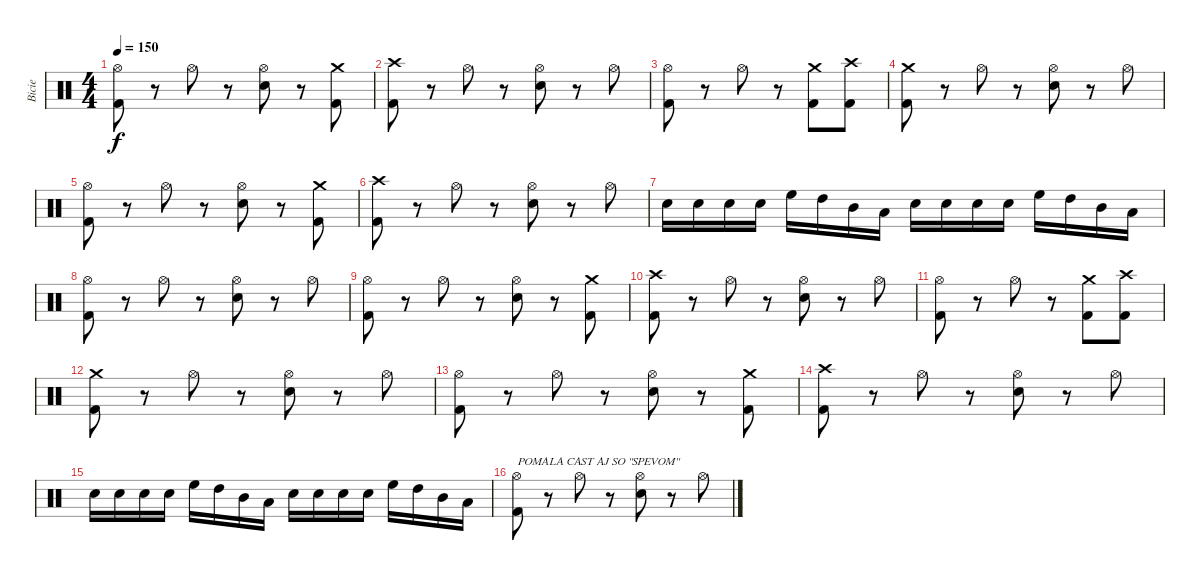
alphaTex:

\track ("Bicie" "Bicie") {instrument percussion}
\staff {score}
\articulation defaults
\ts (4 4)
\tempo 150
\clef neutral
\ks c
("Hi-Hat (open)" "Kick (hit) 2").8{dy f} r.8 "Hi-Hat (open)".8 r.8 ("Hi-Hat (open)" "Snare (hit) 2").8 r.8 ("Crash medium (hit)" "Kick (hit) 2").8 |
("Crash high (hit)" "Kick (hit) 2").8 r.8 "Hi-Hat (open)".8 r.8 ("Hi-Hat (open)" "Snare (hit) 2").8 r.8 "Hi-Hat (open)".8 |
("Hi-Hat (open)" "Kick (hit) 2").8 r.8 "Hi-Hat (open)".8 r.8 ("Crash medium (hit)" "Kick (hit) 2").8 ("Crash high (hit)" "Kick (hit) 2").8 |
("Crash medium (hit)" "Kick (hit) 2").8 r.8 "Hi-Hat (open)".8 r.8 ("Hi-Hat (open)" "Snare (hit) 2").8 r.8 "Hi-Hat (open)".8 |
("Hi-Hat (open)" "Kick (hit) 2").8 r.8 "Hi-Hat (open)".8 r.8 ("Hi-Hat (open)" "Snare (hit) 2").8 r.8 ("Crash medium (hit)" "Kick (hit) 2").8 |
("Crash high (hit)" "Kick (hit) 2").8 r.8 "Hi-Hat (open)".8 r.8 ("Hi-Hat (open)" "Snare (hit) 2").8 r.8 "Hi-Hat (open)".8 |
"Snare (hit) 2".16 "Snare (hit) 2".16 "Snare (hit) 2".16 "Snare (hit) 2".16 "High Floor Tom (hit)".16 "High Tom (hit)".16 "Mid Tom (hit)".16 "Low Tom (hit)".16 "Snare (hit) 2".16 "Snare (hit) 2".16 "Snare (hit) 2".16 "Snare (hit) 2".16 "High Floor Tom (hit)".16 "High Tom (hit)".16 "Mid Tom (hit)".16 "Low Tom (hit)".16 |
("Hi-Hat (open)" "Kick (hit) 2").8 r.8 "Hi-Hat (open)".8 r.8 ("Hi-Hat (open)" "Snare (hit) 2").8 r.8 "Hi-Hat (open)".8 |
("Hi-Hat (open)" "Kick (hit) 2").8 r.8 "Hi-Hat (open)".8 r.8 ("Hi-Hat (open)" "Snare (hit) 2").8 r.8 ("Crash medium (hit)" "Kick (hit) 2").8 |
("Crash high (hit)" "Kick (hit) 2").8 r.8 "Hi-Hat (open)".8 r.8 ("Hi-Hat (open)" "Snare (hit) 2").8 r.8 "Hi-Hat (open)".8 |
("Hi-Hat (open)" "Kick (hit) 2").8 r.8 "Hi-Hat (open)".8 r.8 ("Crash medium (hit)" "Kick (hit) 2").8 ("Crash high (hit)" "Kick (hit) 2").8 |
("Crash medium (hit)" "Kick (hit) 2").8 r.8 "Hi-Hat (open)".8 r.8 ("Hi-Hat (open)" "Snare (hit) 2").8 r.8 "Hi-Hat (open)".8 |
("Hi-Hat (open)" "Kick (hit) 2").8 r.8 "Hi-Hat (open)".8 r.8 ("Hi-Hat (open)" "Snare (hit) 2").8 r.8 ("Crash medium (hit)" "Kick (hit) 2").8 |
("Crash high (hit)" "Kick (hit) 2").8 r.8 "Hi-Hat (open)".8 r.8 ("Hi-Hat (open)" "Snare (hit) 2").8 r.8 "Hi-Hat (open)".8 |
"Snare (hit) 2".16 "Snare (hit) 2".16 "Snare (hit) 2".16 "Snare (hit) 2".16 "High Floor Tom (hit)".16 "High Tom (hit)".16 "Mid Tom (hit)".16 "Low Tom (hit)".16 "Snare (hit) 2".16 "Snare (hit) 2".16 "Snare (hit) 2".16 "Snare (hit) 2".16 "High Floor Tom (hit)".16 "High Tom (hit)".16 "Mid Tom (hit)".16 "Low Tom (hit)".16 |
("Hi-Hat (open)" "Kick (hit) 2").8{txt "POMALA CAST AJ SO \"SPEVOM\""} r.8 "Hi-Hat (open)".8 r.8 ("Hi-Hat (open)" "Snare (hit) 2").8 r.8 "Hi-Hat (open)".8
